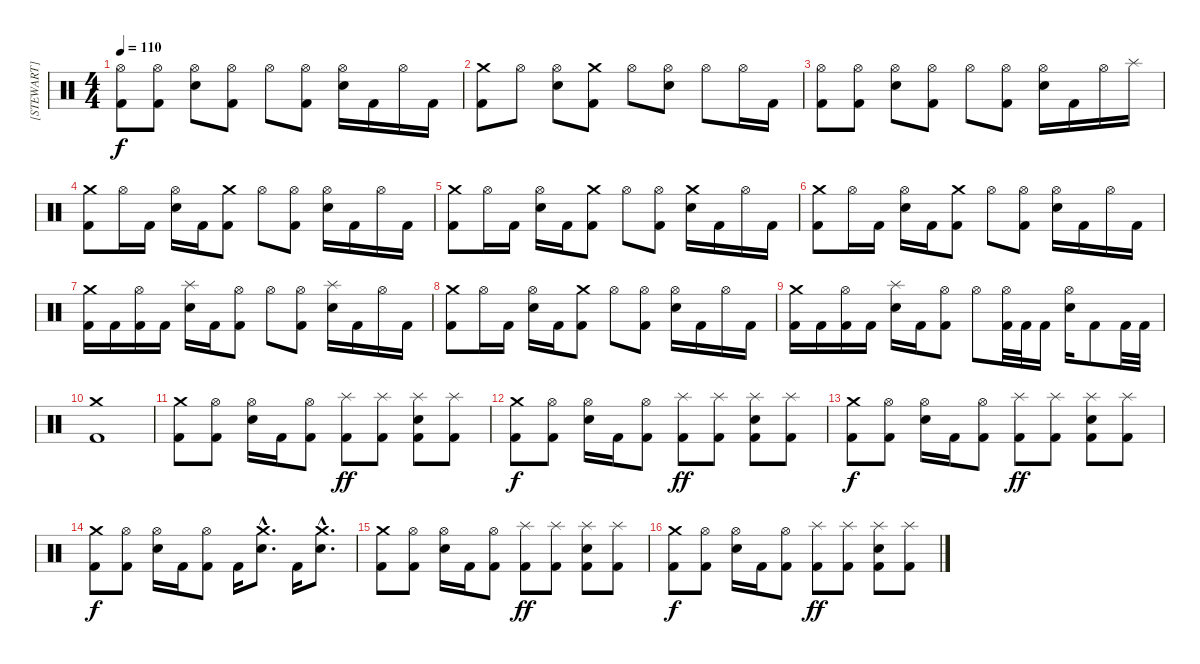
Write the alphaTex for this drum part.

\track ("[STEWART]" "[STEWART]") {instrument percussion}
\staff {score}
\articulation defaults
\ts (4 4)
\tempo 110
\clef neutral
\ks c
("Hi-Hat (open)" "Kick (hit) 2").8{dy f} ("Hi-Hat (open)" "Kick (hit) 2").8 ("Hi-Hat (open)" "Electric Snare (hit)").8 ("Hi-Hat (open)" "Kick (hit) 2").8 "Hi-Hat (open)".8 ("Hi-Hat (open)" "Kick (hit) 2").8 ("Hi-Hat (open)" "Electric Snare (hit)").16 "Kick (hit) 2".16 "Hi-Hat (open)".16 "Kick (hit) 2".16 |
("Crash medium (hit)" "Kick (hit) 2").8 "Hi-Hat (open)".8 ("Hi-Hat (open)" "Electric Snare (hit)").8 ("Crash medium (hit)" "Kick (hit) 2").8 "Hi-Hat (open)".8 ("Hi-Hat (open)" "Electric Snare (hit)").8 "Hi-Hat (open)".8 "Hi-Hat (open)".16 "Kick (hit) 2".16 |
("Hi-Hat (open)" "Kick (hit) 2").8 ("Hi-Hat (open)" "Kick (hit) 2").8 ("Hi-Hat (open)" "Electric Snare (hit)").8 ("Hi-Hat (open)" "Kick (hit) 2").8 "Hi-Hat (open)".8 ("Hi-Hat (open)" "Kick (hit) 2").8 ("Hi-Hat (open)" "Electric Snare (hit)").16 "Kick (hit) 2".16 "Hi-Hat (open)".16 "Splash (hit)".16 |
("Crash medium (hit)" "Kick (hit) 2").8 "Hi-Hat (open)".16 "Kick (hit) 2".16 ("Hi-Hat (open)" "Electric Snare (hit)").16 "Kick (hit) 2".16 ("Crash medium (hit)" "Kick (hit) 2").8 "Hi-Hat (open)".8 ("Hi-Hat (open)" "Kick (hit) 2").8 ("Hi-Hat (open)" "Electric Snare (hit)").16 "Kick (hit) 2".16 "Hi-Hat (open)".16 "Kick (hit) 2".16 |
("Crash medium (hit)" "Kick (hit) 2").8 "Hi-Hat (open)".16 "Kick (hit) 2".16 ("Hi-Hat (open)" "Electric Snare (hit)").16 "Kick (hit) 2".16 ("Crash medium (hit)" "Kick (hit) 2").8 "Hi-Hat (open)".8 ("Hi-Hat (open)" "Kick (hit) 2").8 ("Crash medium (hit)" "Electric Snare (hit)").16 "Kick (hit) 2".16 "Hi-Hat (open)".16 "Kick (hit) 2".16 |
("Crash medium (hit)" "Kick (hit) 2").8 "Hi-Hat (open)".16 "Kick (hit) 2".16 ("Hi-Hat (open)" "Electric Snare (hit)").16 "Kick (hit) 2".16 ("Crash medium (hit)" "Kick (hit) 2").8 "Hi-Hat (open)".8 ("Hi-Hat (open)" "Kick (hit) 2").8 ("Hi-Hat (open)" "Electric Snare (hit)").16 "Kick (hit) 2".16 "Hi-Hat (open)".16 "Kick (hit) 2".16 |
("Crash medium (hit)" "Kick (hit) 2").16 "Kick (hit) 2".16 ("Hi-Hat (open)" "Kick (hit) 2").16 "Kick (hit) 2".16 ("Splash (hit)" "Electric Snare (hit)").16 "Kick (hit) 2".16 ("Hi-Hat (open)" "Kick (hit) 2").8 "Hi-Hat (open)".8 ("Hi-Hat (open)" "Kick (hit) 2").8 ("Splash (hit)" "Electric Snare (hit)").16 "Kick (hit) 2".16 "Hi-Hat (open)".16 "Kick (hit) 2".16 |
("Crash medium (hit)" "Kick (hit) 2").8 "Hi-Hat (open)".16 "Kick (hit) 2".16 ("Hi-Hat (open)" "Electric Snare (hit)").16 "Kick (hit) 2".16 ("Crash medium (hit)" "Kick (hit) 2").8 "Hi-Hat (open)".8 ("Hi-Hat (open)" "Kick (hit) 2").8 ("Hi-Hat (open)" "Electric Snare (hit)").16 "Kick (hit) 2".16 "Hi-Hat (open)".16 "Kick (hit) 2".16 |
("Crash medium (hit)" "Kick (hit) 2").16 "Kick (hit) 2".16 ("Hi-Hat (open)" "Kick (hit) 2").16 "Kick (hit) 2".16 ("Splash (hit)" "Electric Snare (hit)").16 "Kick (hit) 2".16 ("Hi-Hat (open)" "Kick (hit) 2").8 "Hi-Hat (open)".8 ("Hi-Hat (open)" "Kick (hit) 2").32 "Kick (hit) 2".32 "Kick (hit) 2".16 ("Hi-Hat (open)" "Electric Snare (hit)").16 "Kick (hit) 2".8 "Kick (hit) 2".32 "Kick (hit) 2".32 |
("Crash medium (hit)" "Kick (hit) 2").1 |
("Crash medium (hit)" "Kick (hit) 2").8 ("Hi-Hat (open)" "Kick (hit) 2").8 ("Hi-Hat (open)" "Electric Snare (hit)").16 "Kick (hit) 2".16 ("Hi-Hat (open)" "Kick (hit) 2").8 ("Splash (hit)" "Kick (hit) 2").8{dy ff} ("Splash (hit)" "Kick (hit) 2").8 ("Splash (hit)" "Electric Snare (hit)" "Kick (hit) 2").8 ("Splash (hit)" "Kick (hit) 2").8 |
("Crash medium (hit)" "Kick (hit) 2").8{dy f} ("Hi-Hat (open)" "Kick (hit) 2").8 ("Hi-Hat (open)" "Electric Snare (hit)").16 "Kick (hit) 2".16 ("Hi-Hat (open)" "Kick (hit) 2").8 ("Splash (hit)" "Kick (hit) 2").8{dy ff} ("Splash (hit)" "Kick (hit) 2").8 ("Splash (hit)" "Electric Snare (hit)" "Kick (hit) 2").8 ("Splash (hit)" "Kick (hit) 2").8 |
("Crash medium (hit)" "Kick (hit) 2").8{dy f} ("Hi-Hat (open)" "Kick (hit) 2").8 ("Hi-Hat (open)" "Electric Snare (hit)").16 "Kick (hit) 2".16 ("Hi-Hat (open)" "Kick (hit) 2").8 ("Splash (hit)" "Kick (hit) 2").8{dy ff} ("Splash (hit)" "Kick (hit) 2").8 ("Splash (hit)" "Electric Snare (hit)" "Kick (hit) 2").8 ("Splash (hit)" "Kick (hit) 2").8 |
("Crash medium (hit)" "Kick (hit) 2").8{dy f} ("Hi-Hat (open)" "Kick (hit) 2").8 ("Hi-Hat (open)" "Electric Snare (hit)").16 "Kick (hit) 2".16 ("Hi-Hat (open)" "Kick (hit) 2").8 "Kick (hit) 2".16 ("Crash medium (hit)"{hac} "Electric Snare (hit)"{hac}).8{d} "Kick (hit) 2".16 ("Crash medium (hit)"{hac} "Electric Snare (hit)"{hac}).8{d} |
("Crash medium (hit)" "Kick (hit) 2").8 ("Hi-Hat (open)" "Kick (hit) 2").8 ("Hi-Hat (open)" "Electric Snare (hit)").16 "Kick (hit) 2".16 ("Hi-Hat (open)" "Kick (hit) 2").8 ("Splash (hit)" "Kick (hit) 2").8{dy ff} ("Splash (hit)" "Kick (hit) 2").8 ("Splash (hit)" "Electric Snare (hit)" "Kick (hit) 2").8 ("Splash (hit)" "Kick (hit) 2").8 |
("Crash medium (hit)" "Kick (hit) 2").8{dy f} ("Hi-Hat (open)" "Kick (hit) 2").8 ("Hi-Hat (open)" "Electric Snare (hit)").16 "Kick (hit) 2".16 ("Hi-Hat (open)" "Kick (hit) 2").8 ("Splash (hit)" "Kick (hit) 2").8{dy ff} ("Splash (hit)" "Kick (hit) 2").8 ("Splash (hit)" "Electric Snare (hit)" "Kick (hit) 2").8 ("Splash (hit)" "Kick (hit) 2").8
